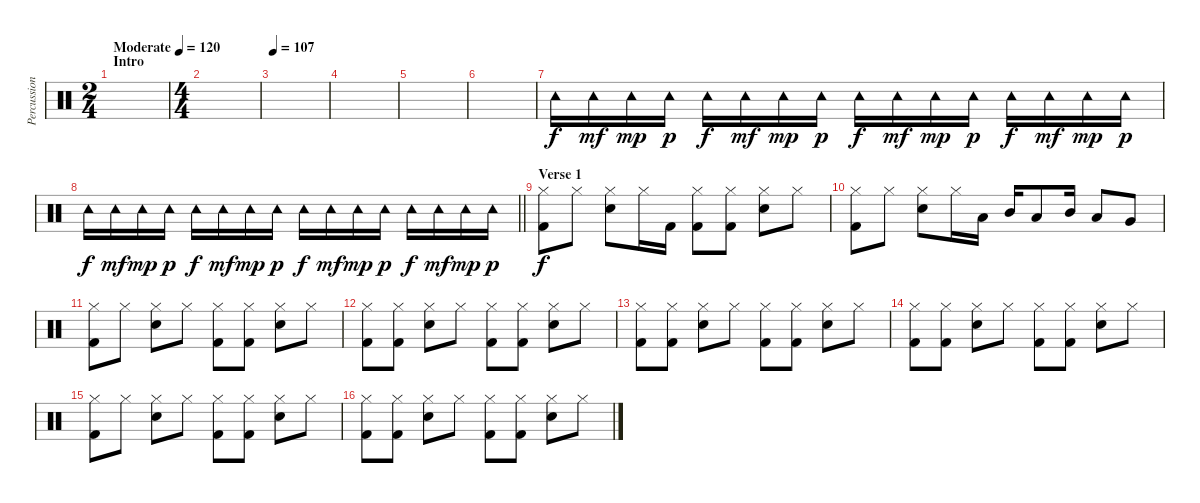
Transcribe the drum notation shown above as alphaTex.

\track ("Percussion" "Percussion") {instrument percussion}
\staff {score}
\articulation defaults
\ts (2 4)
\section ("" "Intro")
\tempo (120 "Moderate")
\tempo 130
\tempo (120 "Moderate")
\clef neutral
\ks c
|
\ts (4 4)
|
\tempo 107
|
|
|
|
"Tambourine (hit)".16 "Tambourine (hit)".16{dy mf} "Tambourine (hit)".16{dy mp} "Tambourine (hit)".16{dy p} "Tambourine (hit)".16{dy f} "Tambourine (hit)".16{dy mf} "Tambourine (hit)".16{dy mp} "Tambourine (hit)".16{dy p} "Tambourine (hit)".16{dy f} "Tambourine (hit)".16{dy mf} "Tambourine (hit)".16{dy mp} "Tambourine (hit)".16{dy p} "Tambourine (hit)".16{dy f} "Tambourine (hit)".16{dy mf} "Tambourine (hit)".16{dy mp} "Tambourine (hit)".16{dy p} |
\barLineRight lightlight "Tambourine (hit)".16{dy f} "Tambourine (hit)".16{dy mf} "Tambourine (hit)".16{dy mp} "Tambourine (hit)".16{dy p} "Tambourine (hit)".16{dy f} "Tambourine (hit)".16{dy mf} "Tambourine (hit)".16{dy mp} "Tambourine (hit)".16{dy p} "Tambourine (hit)".16{dy f} "Tambourine (hit)".16{dy mf} "Tambourine (hit)".16{dy mp} "Tambourine (hit)".16{dy p} "Tambourine (hit)".16{dy f} "Tambourine (hit)".16{dy mf} "Tambourine (hit)".16{dy mp} "Tambourine (hit)".16{dy p}
|
\section ("" "Verse 1")
("Hi-Hat (closed)" "Kick (hit) 2").8{dy f} "Hi-Hat (closed)".8 ("Hi-Hat (closed)" "Snare (hit) 2").8 "Hi-Hat (closed)".16 "Kick (hit) 2".16 ("Hi-Hat (closed)" "Kick (hit) 2").8 ("Hi-Hat (closed)" "Kick (hit) 2").8 ("Hi-Hat (closed)" "Snare (hit) 2").8 "Hi-Hat (closed)".8 |
("Hi-Hat (closed)" "Kick (hit) 2").8 "Hi-Hat (closed)".8 ("Hi-Hat (closed)" "Snare (hit) 2").8 "Hi-Hat (closed)".16 "Low Tom (hit)".16 "Mid Tom (hit)".16 "Low Tom (hit)".8 "Mid Tom (hit)".16 "Low Tom (hit)".8 "Very Low Tom (hit)".8 |
("Hi-Hat (closed)" "Kick (hit) 2").8 "Hi-Hat (closed)".8 ("Hi-Hat (closed)" "Snare (hit) 2").8 "Hi-Hat (closed)".8 ("Hi-Hat (closed)" "Kick (hit) 2").8 ("Hi-Hat (closed)" "Kick (hit) 2").8 ("Hi-Hat (closed)" "Snare (hit) 2").8 "Hi-Hat (closed)".8 |
("Hi-Hat (closed)" "Kick (hit) 2").8 ("Hi-Hat (closed)" "Kick (hit) 2").8 ("Hi-Hat (closed)" "Snare (hit) 2").8 "Hi-Hat (closed)".8 ("Hi-Hat (closed)" "Kick (hit) 2").8 ("Hi-Hat (closed)" "Kick (hit) 2").8 ("Hi-Hat (closed)" "Snare (hit) 2").8 "Hi-Hat (closed)".8 |
("Hi-Hat (closed)" "Kick (hit) 2").8 ("Hi-Hat (closed)" "Kick (hit) 2").8 ("Hi-Hat (closed)" "Snare (hit) 2").8 "Hi-Hat (closed)".8 ("Hi-Hat (closed)" "Kick (hit) 2").8 ("Hi-Hat (closed)" "Kick (hit) 2").8 ("Hi-Hat (closed)" "Snare (hit) 2").8 "Hi-Hat (closed)".8 |
("Hi-Hat (closed)" "Kick (hit) 2").8 ("Hi-Hat (closed)" "Kick (hit) 2").8 ("Hi-Hat (closed)" "Snare (hit) 2").8 "Hi-Hat (closed)".8 ("Hi-Hat (closed)" "Kick (hit) 2").8 ("Hi-Hat (closed)" "Kick (hit) 2").8 ("Hi-Hat (closed)" "Snare (hit) 2").8 "Hi-Hat (closed)".8 |
("Hi-Hat (closed)" "Kick (hit) 2").8 "Hi-Hat (closed)".8 ("Hi-Hat (closed)" "Snare (hit) 2").8 "Hi-Hat (closed)".8 ("Hi-Hat (closed)" "Kick (hit) 2").8 ("Hi-Hat (closed)" "Kick (hit) 2").8 ("Hi-Hat (closed)" "Snare (hit) 2").8 "Hi-Hat (closed)".8 |
("Hi-Hat (closed)" "Kick (hit) 2").8 ("Hi-Hat (closed)" "Kick (hit) 2").8 ("Hi-Hat (closed)" "Snare (hit) 2").8 "Hi-Hat (closed)".8 ("Hi-Hat (closed)" "Kick (hit) 2").8 ("Hi-Hat (closed)" "Kick (hit) 2").8 ("Hi-Hat (closed)" "Snare (hit) 2").8 "Hi-Hat (closed)".8
